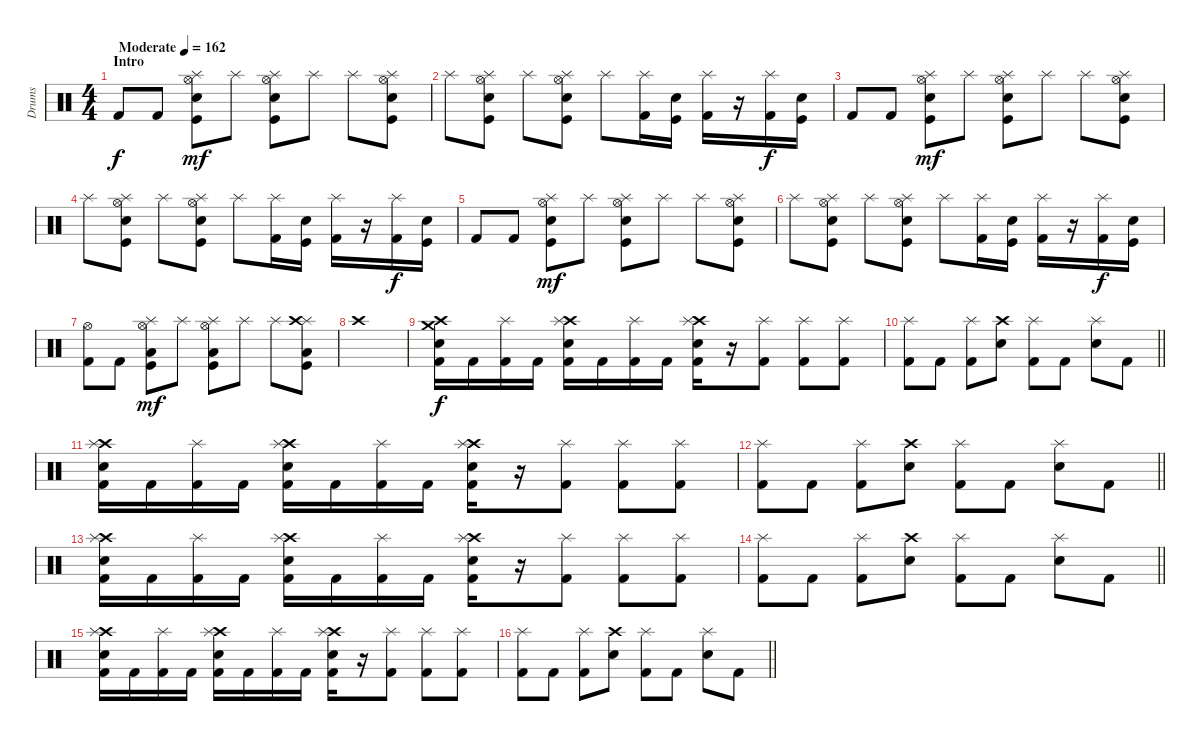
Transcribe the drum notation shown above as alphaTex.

\track ("Drums" "Drums") {instrument percussion}
\staff {score}
\articulation defaults
\ts (4 4)
\section ("" "Intro")
\tempo (162 "Moderate")
\clef neutral
\ks c "Kick (hit) 2".8{dy f} "Kick (hit) 2".8
("Kick (hit)" "Snare (hit) 2" "Splash (hit)" "Hi-Hat (open)").8{dy mf} "Splash (hit)".8 ("Kick (hit)" "Snare (hit) 2" "Splash (hit)" "Hi-Hat (open)").8 "Splash (hit)".8 "Splash (hit)".8 ("Kick (hit)" "Snare (hit) 2" "Splash (hit)" "Hi-Hat (open)").8 |
"Splash (hit)".8 ("Kick (hit)" "Snare (hit) 2" "Splash (hit)" "Hi-Hat (open)").8 "Splash (hit)".8 ("Kick (hit)" "Snare (hit) 2" "Splash (hit)" "Hi-Hat (open)").8 "Splash (hit)".8 ("Kick (hit) 2" "Splash (hit)").16 ("Kick (hit)" "Electric Snare (hit)").16 ("Kick (hit) 2" "Splash (hit)").16 r.16 ("Kick (hit) 2" "Splash (hit)").16{dy f} ("Kick (hit)" "Electric Snare (hit)").16 |
"Kick (hit) 2".8 "Kick (hit) 2".8 ("Kick (hit)" "Snare (hit) 2" "Splash (hit)" "Hi-Hat (open)").8{dy mf} "Splash (hit)".8 ("Kick (hit)" "Snare (hit) 2" "Splash (hit)" "Hi-Hat (open)").8 "Splash (hit)".8 "Splash (hit)".8 ("Kick (hit)" "Snare (hit) 2" "Splash (hit)" "Hi-Hat (open)").8 |
"Splash (hit)".8 ("Kick (hit)" "Snare (hit) 2" "Splash (hit)" "Hi-Hat (open)").8 "Splash (hit)".8 ("Kick (hit)" "Snare (hit) 2" "Splash (hit)" "Hi-Hat (open)").8 "Splash (hit)".8 ("Kick (hit) 2" "Splash (hit)").16 ("Kick (hit)" "Electric Snare (hit)").16 ("Kick (hit) 2" "Splash (hit)").16 r.16 ("Kick (hit) 2" "Splash (hit)").16{dy f} ("Kick (hit)" "Electric Snare (hit)").16 |
"Kick (hit) 2".8 "Kick (hit) 2".8 ("Kick (hit)" "Snare (hit) 2" "Splash (hit)" "Hi-Hat (open)").8{dy mf} "Splash (hit)".8 ("Kick (hit)" "Snare (hit) 2" "Splash (hit)" "Hi-Hat (open)").8 "Splash (hit)".8 "Splash (hit)".8 ("Kick (hit)" "Snare (hit) 2" "Splash (hit)" "Hi-Hat (open)").8 |
"Splash (hit)".8 ("Kick (hit)" "Snare (hit) 2" "Splash (hit)" "Hi-Hat (open)").8 "Splash (hit)".8 ("Kick (hit)" "Snare (hit) 2" "Splash (hit)" "Hi-Hat (open)").8 "Splash (hit)".8 ("Kick (hit) 2" "Splash (hit)").16 ("Kick (hit)" "Electric Snare (hit)").16 ("Kick (hit) 2" "Splash (hit)").16 r.16 ("Kick (hit) 2" "Splash (hit)").16{dy f} ("Kick (hit)" "Electric Snare (hit)").16 |
("Kick (hit) 2" "Hi-Hat (open)").8 "Kick (hit) 2".8 ("Kick (hit)" "Low Floor Tom (hit)" "Splash (hit)" "Hi-Hat (open)").8{dy mf} "Splash (hit)".8 ("Kick (hit)" "Low Floor Tom (hit)" "Splash (hit)" "Hi-Hat (open)").8 "Splash (hit)".8 "Splash (hit)".8 ("Kick (hit)" "Low Floor Tom (hit)" "Splash (hit)" "Crash high (hit)").8 |
"Crash high (hit)".1 |
("Snare (hit) 2" "Kick (hit) 2" "Crash high (hit)" "Crash medium (hit)").16{dy f} "Kick (hit) 2".16 ("Kick (hit) 2" "Splash (hit)").16 "Kick (hit) 2".16 ("Snare (hit) 2" "Kick (hit) 2" "Crash high (hit)" "Splash (hit)").16 "Kick (hit) 2".16 ("Kick (hit) 2" "Splash (hit)").16 "Kick (hit) 2".16 ("Snare (hit) 2" "Kick (hit) 2" "Crash high (hit)" "Splash (hit)").16 r.16 ("Kick (hit) 2" "Splash (hit)").8 ("Kick (hit) 2" "Splash (hit)").8 ("Kick (hit) 2" "Splash (hit)").8 |
\barLineRight lightlight
("Kick (hit) 2" "Splash (hit)").8 "Kick (hit) 2".8 ("Kick (hit) 2" "Splash (hit)").8 ("Snare (hit) 2" "Crash high (hit)").8 ("Kick (hit) 2" "Splash (hit)").8 "Kick (hit) 2".8 ("Snare (hit) 2" "Splash (hit)").8 "Kick (hit) 2".8 |
("Snare (hit) 2" "Kick (hit) 2" "Crash high (hit)" "Splash (hit)").16 "Kick (hit) 2".16 ("Kick (hit) 2" "Splash (hit)").16 "Kick (hit) 2".16 ("Snare (hit) 2" "Kick (hit) 2" "Crash high (hit)" "Splash (hit)").16 "Kick (hit) 2".16 ("Kick (hit) 2" "Splash (hit)").16 "Kick (hit) 2".16 ("Snare (hit) 2" "Kick (hit) 2" "Crash high (hit)" "Splash (hit)").16 r.16 ("Kick (hit) 2" "Splash (hit)").8 ("Kick (hit) 2" "Splash (hit)").8 ("Kick (hit) 2" "Splash (hit)").8 |
\barLineRight lightlight
("Kick (hit) 2" "Splash (hit)").8 "Kick (hit) 2".8 ("Kick (hit) 2" "Splash (hit)").8 ("Snare (hit) 2" "Crash high (hit)").8 ("Kick (hit) 2" "Splash (hit)").8 "Kick (hit) 2".8 ("Snare (hit) 2" "Splash (hit)").8 "Kick (hit) 2".8 |
("Snare (hit) 2" "Kick (hit) 2" "Crash high (hit)" "Splash (hit)").16 "Kick (hit) 2".16 ("Kick (hit) 2" "Splash (hit)").16 "Kick (hit) 2".16 ("Snare (hit) 2" "Kick (hit) 2" "Crash high (hit)" "Splash (hit)").16 "Kick (hit) 2".16 ("Kick (hit) 2" "Splash (hit)").16 "Kick (hit) 2".16 ("Snare (hit) 2" "Kick (hit) 2" "Crash high (hit)" "Splash (hit)").16 r.16 ("Kick (hit) 2" "Splash (hit)").8 ("Kick (hit) 2" "Splash (hit)").8 ("Kick (hit) 2" "Splash (hit)").8 |
\barLineRight lightlight
("Kick (hit) 2" "Splash (hit)").8 "Kick (hit) 2".8 ("Kick (hit) 2" "Splash (hit)").8 ("Snare (hit) 2" "Crash high (hit)").8 ("Kick (hit) 2" "Splash (hit)").8 "Kick (hit) 2".8 ("Snare (hit) 2" "Splash (hit)").8 "Kick (hit) 2".8 |
("Snare (hit) 2" "Kick (hit) 2" "Crash high (hit)" "Splash (hit)").16 "Kick (hit) 2".16 ("Kick (hit) 2" "Splash (hit)").16 "Kick (hit) 2".16 ("Snare (hit) 2" "Kick (hit) 2" "Crash high (hit)" "Splash (hit)").16 "Kick (hit) 2".16 ("Kick (hit) 2" "Splash (hit)").16 "Kick (hit) 2".16 ("Snare (hit) 2" "Kick (hit) 2" "Crash high (hit)" "Splash (hit)").16 r.16 ("Kick (hit) 2" "Splash (hit)").8 ("Kick (hit) 2" "Splash (hit)").8 ("Kick (hit) 2" "Splash (hit)").8 |
\barLineRight lightlight
("Kick (hit) 2" "Splash (hit)").8 "Kick (hit) 2".8 ("Kick (hit) 2" "Splash (hit)").8 ("Snare (hit) 2" "Crash high (hit)").8 ("Kick (hit) 2" "Splash (hit)").8 "Kick (hit) 2".8 ("Snare (hit) 2" "Splash (hit)").8 "Kick (hit) 2".8
